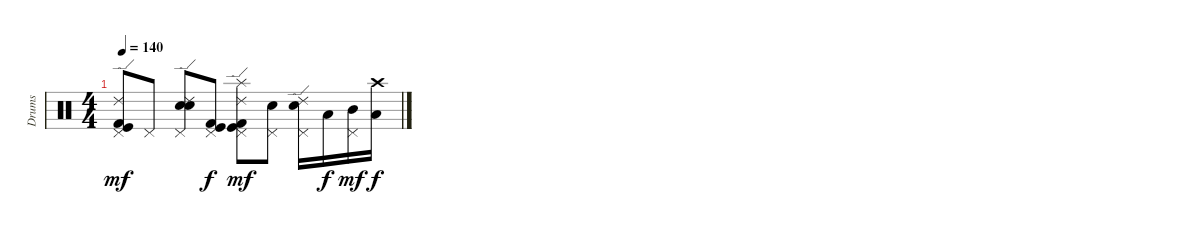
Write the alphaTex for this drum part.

\track ("Drums" "Drums") {instrument percussion}
\staff {score}
\articulation defaults
\ts (4 4)
\tempo 140
\clef neutral
\ks c
("Ride (edge) 2" "Pedal Hi-Hat (hit)" "Kick (hit)" "Kick (hit) 2").8{dy mf} "Pedal Hi-Hat (hit)".8 ("Pedal Hi-Hat (hit)" "Snare (hit) 2" "Ride (edge) 2" "Snare (hit) 2").8 ("Pedal Hi-Hat (hit)" "Kick (hit)" "Kick (hit) 2").8{dy f} ("Pedal Hi-Hat (hit)" "Splash (hit)" "Ride (edge) 2" "Kick (hit)" "Kick (hit) 2").8{dy mf} ("Pedal Hi-Hat (hit)" "Snare (hit) 2").8 ("Pedal Hi-Hat (hit)" "Snare (hit) 2" "Ride (edge) 2").16 "Low Tom (hit)".16{dy f} ("Pedal Hi-Hat (hit)" "Mid Tom (hit)").16{dy mf} ("Crash high (hit)" "Low Tom (hit)").16{dy f}
